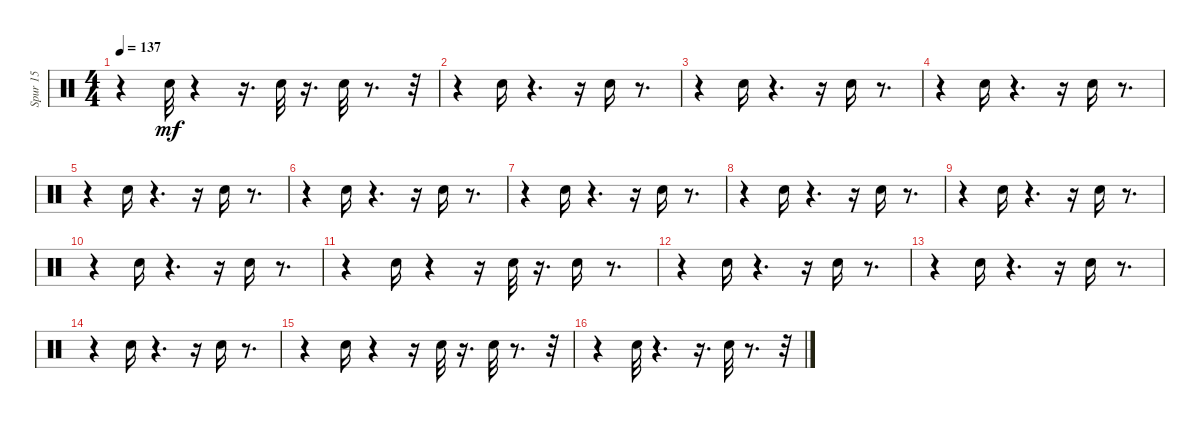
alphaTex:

\track ("Spur 15" "Spur 15") {instrument percussion}
\staff {score}
\articulation defaults
\ts (4 4)
\tempo 137
\clef neutral
\ks c
r.4{dy mf} "Hand Clap (hit)".32 r.4 r.16{d} "Hand Clap (hit)".32 r.16{d} "Hand Clap (hit)".32 r.8{d} r.32 |
r.4 "Hand Clap (hit)".16 r.4{d} r.16 "Hand Clap (hit)".16 r.8{d} |
r.4 "Hand Clap (hit)".16 r.4{d} r.16 "Hand Clap (hit)".16 r.8{d} |
r.4 "Hand Clap (hit)".16 r.4{d} r.16 "Hand Clap (hit)".16 r.8{d} |
r.4 "Hand Clap (hit)".16 r.4{d} r.16 "Hand Clap (hit)".16 r.8{d} |
r.4 "Hand Clap (hit)".16 r.4{d} r.16 "Hand Clap (hit)".16 r.8{d} |
r.4 "Hand Clap (hit)".16 r.4{d} r.16 "Hand Clap (hit)".16 r.8{d} |
r.4 "Hand Clap (hit)".16 r.4{d} r.16 "Hand Clap (hit)".16 r.8{d} |
r.4 "Hand Clap (hit)".16 r.4{d} r.16 "Hand Clap (hit)".16 r.8{d} |
r.4 "Hand Clap (hit)".16 r.4{d} r.16 "Hand Clap (hit)".16 r.8{d} |
r.4 "Hand Clap (hit)".16 r.4 r.16 "Hand Clap (hit)".32 r.16{d} "Hand Clap (hit)".16 r.8{d} |
r.4 "Hand Clap (hit)".16 r.4{d} r.16 "Hand Clap (hit)".16 r.8{d} |
r.4 "Hand Clap (hit)".16 r.4{d} r.16 "Hand Clap (hit)".16 r.8{d} |
r.4 "Hand Clap (hit)".16 r.4{d} r.16 "Hand Clap (hit)".16 r.8{d} |
r.4 "Hand Clap (hit)".16 r.4 r.16 "Hand Clap (hit)".32 r.16{d} "Hand Clap (hit)".32 r.8{d} r.32 |
r.4 "Hand Clap (hit)".32 r.4{d} r.16{d} "Hand Clap (hit)".32 r.8{d} r.32
